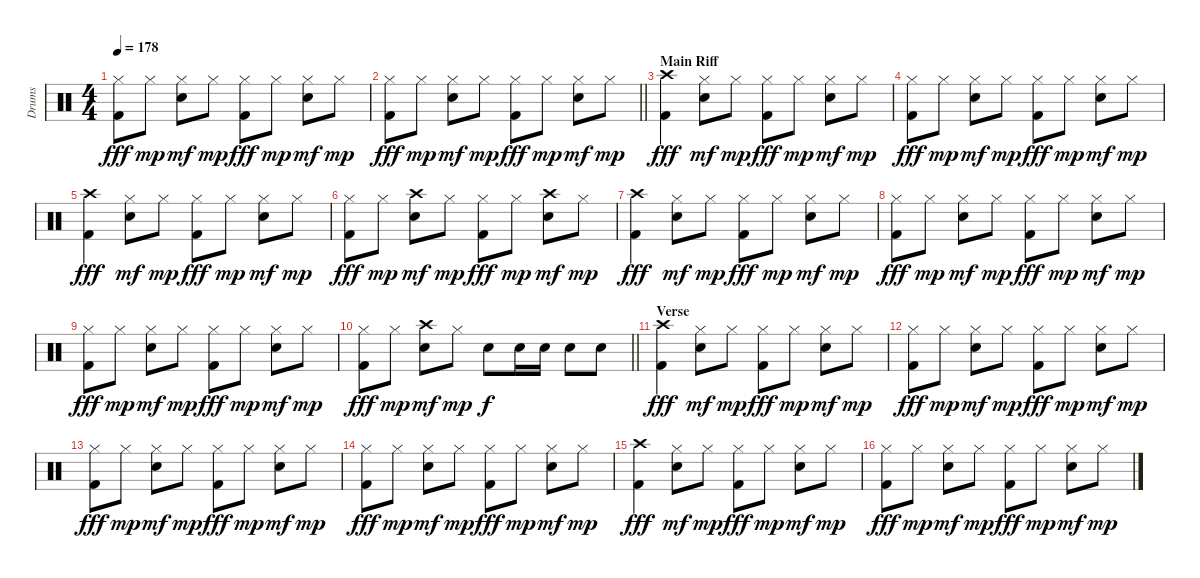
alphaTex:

\track ("Drums" "Drums") {instrument percussion}
\staff {score}
\articulation defaults
\ts (4 4)
\tempo 178
\clef neutral
\ks c
("Hi-Hat (closed)" "Kick (hit) 2").8{dy fff} "Hi-Hat (closed)".8{dy mp} ("Hi-Hat (closed)" "Electric Snare (hit)").8{dy mf} "Hi-Hat (closed)".8{dy mp} ("Hi-Hat (closed)" "Kick (hit) 2").8{dy fff} "Hi-Hat (closed)".8{dy mp} ("Hi-Hat (closed)" "Electric Snare (hit)").8{dy mf} "Hi-Hat (closed)".8{dy mp} |
\barLineRight lightlight
("Hi-Hat (closed)" "Kick (hit) 2").8{dy fff} "Hi-Hat (closed)".8{dy mp} ("Hi-Hat (closed)" "Electric Snare (hit)").8{dy mf} "Hi-Hat (closed)".8{dy mp} ("Hi-Hat (closed)" "Kick (hit) 2").8{dy fff} "Hi-Hat (closed)".8{dy mp} ("Hi-Hat (closed)" "Electric Snare (hit)").8{dy mf} "Hi-Hat (closed)".8{dy mp} |
\section ("" "Main Riff")
("Crash high (hit)" "Kick (hit) 2").4{dy fff} ("Hi-Hat (closed)" "Electric Snare (hit)").8{dy mf} "Hi-Hat (closed)".8{dy mp} ("Hi-Hat (closed)" "Kick (hit) 2").8{dy fff} "Hi-Hat (closed)".8{dy mp} ("Hi-Hat (closed)" "Electric Snare (hit)").8{dy mf} "Hi-Hat (closed)".8{dy mp} |
("Hi-Hat (closed)" "Kick (hit) 2").8{dy fff} "Hi-Hat (closed)".8{dy mp} ("Hi-Hat (closed)" "Electric Snare (hit)").8{dy mf} "Hi-Hat (closed)".8{dy mp} ("Hi-Hat (closed)" "Kick (hit) 2").8{dy fff} "Hi-Hat (closed)".8{dy mp} ("Hi-Hat (closed)" "Electric Snare (hit)").8{dy mf} "Hi-Hat (closed)".8{dy mp} |
("Crash high (hit)" "Kick (hit) 2").4{dy fff} ("Hi-Hat (closed)" "Electric Snare (hit)").8{dy mf} "Hi-Hat (closed)".8{dy mp} ("Hi-Hat (closed)" "Kick (hit) 2").8{dy fff} "Hi-Hat (closed)".8{dy mp} ("Hi-Hat (closed)" "Electric Snare (hit)").8{dy mf} "Hi-Hat (closed)".8{dy mp} |
("Hi-Hat (closed)" "Kick (hit) 2").8{dy fff} "Hi-Hat (closed)".8{dy mp} ("Crash high (hit)" "Electric Snare (hit)").8{dy mf} "Hi-Hat (closed)".8{dy mp} ("Hi-Hat (closed)" "Kick (hit) 2").8{dy fff} "Hi-Hat (closed)".8{dy mp} ("Crash high (hit)" "Electric Snare (hit)").8{dy mf} "Hi-Hat (closed)".8{dy mp} |
("Crash high (hit)" "Kick (hit) 2").4{dy fff} ("Hi-Hat (closed)" "Electric Snare (hit)").8{dy mf} "Hi-Hat (closed)".8{dy mp} ("Hi-Hat (closed)" "Kick (hit) 2").8{dy fff} "Hi-Hat (closed)".8{dy mp} ("Hi-Hat (closed)" "Electric Snare (hit)").8{dy mf} "Hi-Hat (closed)".8{dy mp} |
("Hi-Hat (closed)" "Kick (hit) 2").8{dy fff} "Hi-Hat (closed)".8{dy mp} ("Hi-Hat (closed)" "Electric Snare (hit)").8{dy mf} "Hi-Hat (closed)".8{dy mp} ("Hi-Hat (closed)" "Kick (hit) 2").8{dy fff} "Hi-Hat (closed)".8{dy mp} ("Hi-Hat (closed)" "Electric Snare (hit)").8{dy mf} "Hi-Hat (closed)".8{dy mp} |
("Hi-Hat (closed)" "Kick (hit) 2").8{dy fff} "Hi-Hat (closed)".8{dy mp} ("Hi-Hat (closed)" "Electric Snare (hit)").8{dy mf} "Hi-Hat (closed)".8{dy mp} ("Hi-Hat (closed)" "Kick (hit) 2").8{dy fff} "Hi-Hat (closed)".8{dy mp} ("Hi-Hat (closed)" "Electric Snare (hit)").8{dy mf} "Hi-Hat (closed)".8{dy mp} |
\barLineRight lightlight
("Hi-Hat (closed)" "Kick (hit) 2").8{dy fff} "Hi-Hat (closed)".8{dy mp} ("Crash high (hit)" "Electric Snare (hit)").8{dy mf} "Hi-Hat (closed)".8{dy mp} "Snare (hit) 2".8{dy f} "Snare (hit) 2".16 "Snare (hit) 2".16 "Snare (hit) 2".8 "Snare (hit) 2".8 |
\section ("" "Verse")
("Crash high (hit)" "Kick (hit) 2").4{dy fff} ("Hi-Hat (closed)" "Electric Snare (hit)").8{dy mf} "Hi-Hat (closed)".8{dy mp} ("Hi-Hat (closed)" "Kick (hit) 2").8{dy fff} "Hi-Hat (closed)".8{dy mp} ("Hi-Hat (closed)" "Electric Snare (hit)").8{dy mf} "Hi-Hat (closed)".8{dy mp} |
("Hi-Hat (closed)" "Kick (hit) 2").8{dy fff} "Hi-Hat (closed)".8{dy mp} ("Hi-Hat (closed)" "Electric Snare (hit)").8{dy mf} "Hi-Hat (closed)".8{dy mp} ("Hi-Hat (closed)" "Kick (hit) 2").8{dy fff} "Hi-Hat (closed)".8{dy mp} ("Hi-Hat (closed)" "Electric Snare (hit)").8{dy mf} "Hi-Hat (closed)".8{dy mp} |
("Hi-Hat (closed)" "Kick (hit) 2").8{dy fff} "Hi-Hat (closed)".8{dy mp} ("Hi-Hat (closed)" "Electric Snare (hit)").8{dy mf} "Hi-Hat (closed)".8{dy mp} ("Hi-Hat (closed)" "Kick (hit) 2").8{dy fff} "Hi-Hat (closed)".8{dy mp} ("Hi-Hat (closed)" "Electric Snare (hit)").8{dy mf} "Hi-Hat (closed)".8{dy mp} |
("Hi-Hat (closed)" "Kick (hit) 2").8{dy fff} "Hi-Hat (closed)".8{dy mp} ("Hi-Hat (closed)" "Electric Snare (hit)").8{dy mf} "Hi-Hat (closed)".8{dy mp} ("Hi-Hat (closed)" "Kick (hit) 2").8{dy fff} "Hi-Hat (closed)".8{dy mp} ("Hi-Hat (closed)" "Electric Snare (hit)").8{dy mf} "Hi-Hat (closed)".8{dy mp} |
("Crash high (hit)" "Kick (hit) 2").4{dy fff} ("Hi-Hat (closed)" "Electric Snare (hit)").8{dy mf} "Hi-Hat (closed)".8{dy mp} ("Hi-Hat (closed)" "Kick (hit) 2").8{dy fff} "Hi-Hat (closed)".8{dy mp} ("Hi-Hat (closed)" "Electric Snare (hit)").8{dy mf} "Hi-Hat (closed)".8{dy mp} |
("Hi-Hat (closed)" "Kick (hit) 2").8{dy fff} "Hi-Hat (closed)".8{dy mp} ("Hi-Hat (closed)" "Electric Snare (hit)").8{dy mf} "Hi-Hat (closed)".8{dy mp} ("Hi-Hat (closed)" "Kick (hit) 2").8{dy fff} "Hi-Hat (closed)".8{dy mp} ("Hi-Hat (closed)" "Electric Snare (hit)").8{dy mf} "Hi-Hat (closed)".8{dy mp}
